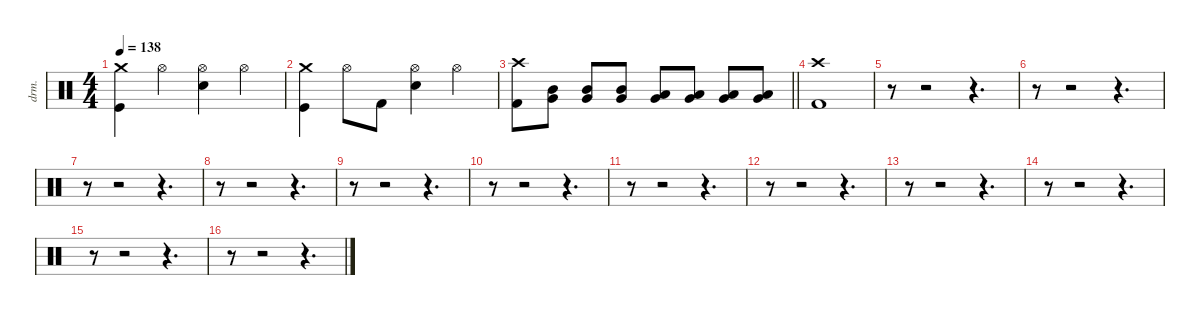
\defaultSystemsLayout 4
\hideDynamics
\bracketExtendMode nobrackets
\track ("Percussions" "drm.") {instrument percussion}
\staff {score}
\articulation defaults
\ts (4 4)
\tempo 138
\clef neutral
\ks aminor
("Crash medium (hit)" "Kick (hit)").4{dy f} "Hi-Hat (open)".4 ("Hi-Hat (open)" "Snare (hit) 2").4 "Hi-Hat (open)".4 |
("Crash medium (hit)" "Kick (hit)").4 "Hi-Hat (open)".8 "Kick (hit) 2".8 ("Hi-Hat (open)" "Snare (hit) 2").4 "Hi-Hat (open)".4 |
\barLineRight lightlight
("Crash high (hit)" "Kick (hit) 2").8 ("Mid Tom (hit)" "Very Low Tom (hit)").8{dy mp} ("Very Low Tom (hit)" "Mid Tom (hit)").8 ("Very Low Tom (hit)" "Mid Tom (hit)").8{dy mf} ("Very Low Tom (hit)" "Low Tom (hit)").8 ("Very Low Tom (hit)" "Low Tom (hit)").8{dy f} ("Very Low Tom (hit)" "Low Tom (hit)").8 ("Very Low Tom (hit)" "Low Tom (hit)").8{dy ff} |
("Kick (hit) 2" "Crash high (hit)").1{dy f} |
r.8 r.2 r.4{d} |
r.8 r.2 r.4{d} |
r.8 r.2 r.4{d} |
r.8 r.2 r.4{d} |
r.8 r.2 r.4{d} |
r.8 r.2 r.4{d} |
r.8 r.2 r.4{d} |
r.8 r.2 r.4{d} |
r.8 r.2 r.4{d} |
r.8 r.2 r.4{d} |
r.8 r.2 r.4{d} |
r.8 r.2 r.4{d}
